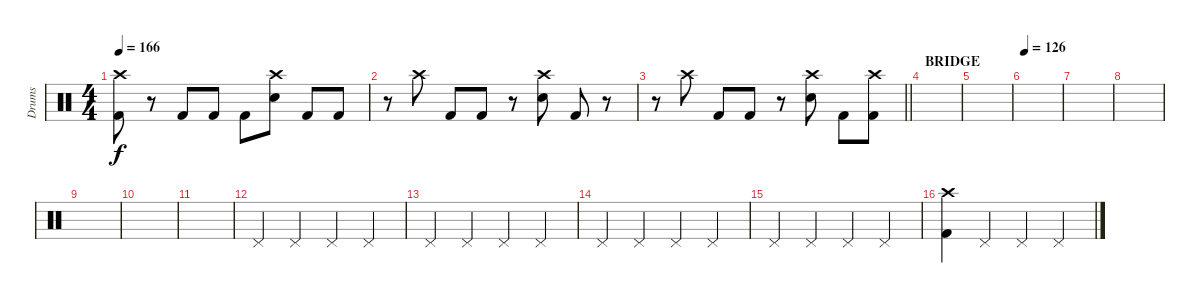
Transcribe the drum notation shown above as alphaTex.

\track ("Drums" "Drums") {instrument percussion}
\staff {score}
\articulation defaults
\ts (4 4)
\tempo 166
\clef neutral
\ks c
("Crash high (hit)" "Kick (hit) 2").8{dy f} r.8 "Kick (hit) 2".8 "Kick (hit) 2".8 "Kick (hit) 2".8 ("Crash high (hit)" "Snare (hit) 2").8 "Kick (hit) 2".8 "Kick (hit) 2".8 |
r.8 "Crash high (hit)".8 "Kick (hit) 2".8 "Kick (hit) 2".8 r.8 ("Crash high (hit)" "Snare (hit) 2").8 "Kick (hit) 2".8 r.8 |
\barLineRight lightlight
r.8 "Crash high (hit)".8 "Kick (hit) 2".8 "Kick (hit) 2".8 r.8 ("Crash high (hit)" "Snare (hit) 2").8 "Kick (hit) 2".8 ("Crash high (hit)" "Kick (hit) 2").8 |
\section ("" "BRIDGE")
|
|
\tempo 126
|
|
|
|
|
|
"Pedal Hi-Hat (hit)".4 "Pedal Hi-Hat (hit)".4 "Pedal Hi-Hat (hit)".4 "Pedal Hi-Hat (hit)".4 |
"Pedal Hi-Hat (hit)".4 "Pedal Hi-Hat (hit)".4 "Pedal Hi-Hat (hit)".4 "Pedal Hi-Hat (hit)".4 |
"Pedal Hi-Hat (hit)".4 "Pedal Hi-Hat (hit)".4 "Pedal Hi-Hat (hit)".4 "Pedal Hi-Hat (hit)".4 |
"Pedal Hi-Hat (hit)".4 "Pedal Hi-Hat (hit)".4 "Pedal Hi-Hat (hit)".4 "Pedal Hi-Hat (hit)".4 |
("Crash high (hit)" "Kick (hit) 2").4 "Pedal Hi-Hat (hit)".4 "Pedal Hi-Hat (hit)".4 "Pedal Hi-Hat (hit)".4
